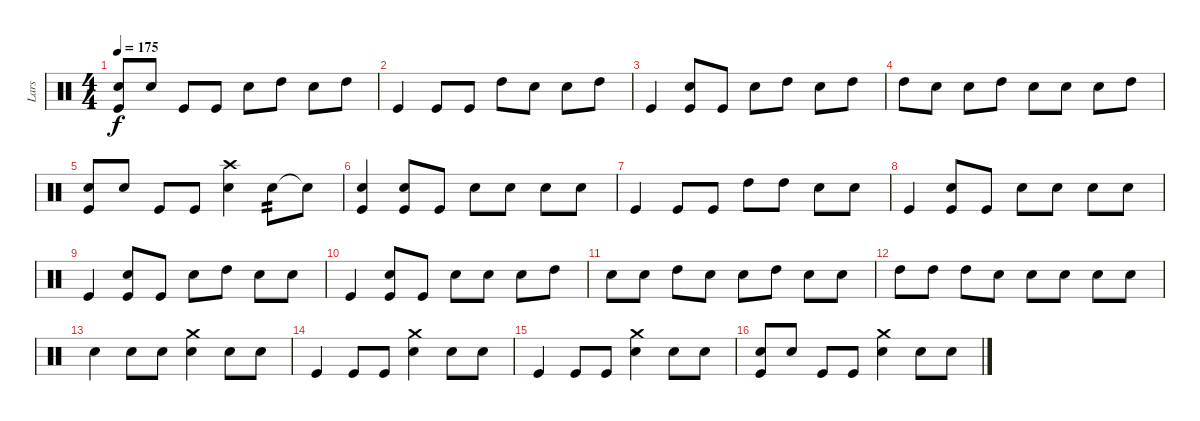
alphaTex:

\track ("Lars" "Lars") {instrument percussion}
\staff {score}
\articulation defaults
\ts (4 4)
\tempo 175
\clef neutral
\ks c
("Kick (hit)" "Electric Snare (hit)").8{dy f} "Electric Snare (hit)".8 "Kick (hit)".8 "Kick (hit)".8 "Electric Snare (hit)".8 "High Tom (hit)".8 "Electric Snare (hit)".8 "High Tom (hit)".8 |
"Kick (hit)".4 "Kick (hit)".8 "Kick (hit)".8 "High Tom (hit)".8 "Electric Snare (hit)".8 "Electric Snare (hit)".8 "High Tom (hit)".8 |
"Kick (hit)".4 ("Kick (hit)" "Electric Snare (hit)").8 "Kick (hit)".8 "Electric Snare (hit)".8 "High Tom (hit)".8 "Electric Snare (hit)".8 "High Tom (hit)".8 |
"High Tom (hit)".8 "Electric Snare (hit)".8 "Electric Snare (hit)".8 "High Tom (hit)".8 "Electric Snare (hit)".8 "Electric Snare (hit)".8 "Electric Snare (hit)".8 "High Tom (hit)".8 |
("Kick (hit)" "Electric Snare (hit)").8 "Electric Snare (hit)".8 "Kick (hit)".8 "Kick (hit)".8 ("Electric Snare (hit)" "Crash high (hit)").4 "Electric Snare (hit)".8{tp 2} "Snare (hit)"{t}.8 |
("Kick (hit)" "Electric Snare (hit)").4 ("Kick (hit)" "Electric Snare (hit)").8 "Kick (hit)".8 "Electric Snare (hit)".8 "Electric Snare (hit)".8 "Electric Snare (hit)".8 "Electric Snare (hit)".8 |
"Kick (hit)".4 "Kick (hit)".8 "Kick (hit)".8 "High Tom (hit)".8 "High Tom (hit)".8 "Electric Snare (hit)".8 "Electric Snare (hit)".8 |
"Kick (hit)".4 ("Kick (hit)" "Electric Snare (hit)").8 "Kick (hit)".8 "Electric Snare (hit)".8 "Electric Snare (hit)".8 "Electric Snare (hit)".8 "Electric Snare (hit)".8 |
"Kick (hit)".4 ("Kick (hit)" "Electric Snare (hit)").8 "Kick (hit)".8 "Electric Snare (hit)".8 "High Tom (hit)".8 "Electric Snare (hit)".8 "Electric Snare (hit)".8 |
"Kick (hit)".4 ("Kick (hit)" "Electric Snare (hit)").8 "Kick (hit)".8 "Electric Snare (hit)".8 "Electric Snare (hit)".8 "Electric Snare (hit)".8 "High Tom (hit)".8 |
"Electric Snare (hit)".8 "Electric Snare (hit)".8 "High Tom (hit)".8 "Electric Snare (hit)".8 "Electric Snare (hit)".8 "High Tom (hit)".8 "Electric Snare (hit)".8 "Electric Snare (hit)".8 |
"High Tom (hit)".8 "High Tom (hit)".8 "High Tom (hit)".8 "Electric Snare (hit)".8 "Electric Snare (hit)".8 "Electric Snare (hit)".8 "Electric Snare (hit)".8 "Electric Snare (hit)".8 |
"Electric Snare (hit)".4 "Electric Snare (hit)".8 "Electric Snare (hit)".8 ("Electric Snare (hit)" "Crash medium (hit)").4 "Electric Snare (hit)".8 "Electric Snare (hit)".8 |
"Kick (hit)".4 "Kick (hit)".8 "Kick (hit)".8 ("Electric Snare (hit)" "Crash medium (hit)").4 "Electric Snare (hit)".8 "Electric Snare (hit)".8 |
"Kick (hit)".4 "Kick (hit)".8 "Kick (hit)".8 ("Electric Snare (hit)" "Crash medium (hit)").4 "Electric Snare (hit)".8 "Electric Snare (hit)".8 |
("Kick (hit)" "Electric Snare (hit)").8 "Electric Snare (hit)".8 "Kick (hit)".8 "Kick (hit)".8 ("Electric Snare (hit)" "Crash medium (hit)").4 "Electric Snare (hit)".8 "Electric Snare (hit)".8
